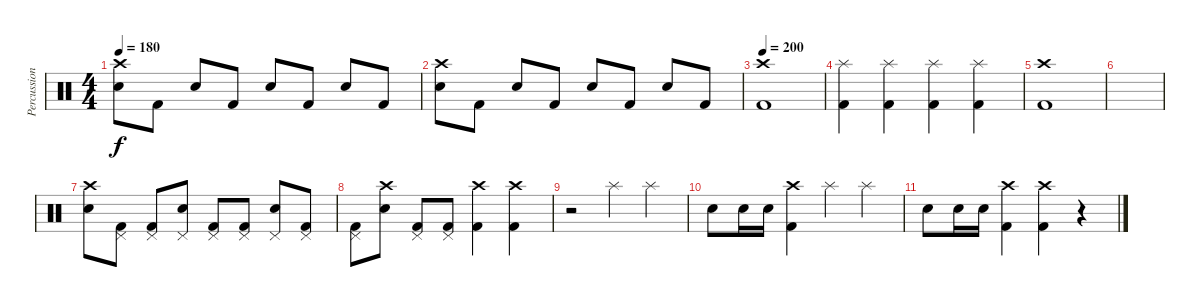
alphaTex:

\track ("Percussion" "Percussion") {instrument percussion}
\staff {score}
\articulation defaults
\ts (4 4)
\tempo 180
\clef neutral
\ks c
("Electric Snare (hit)" "Crash high (hit)").8{dy f} "Kick (hit) 2".8 "Electric Snare (hit)".8 "Kick (hit) 2".8 "Electric Snare (hit)".8 "Kick (hit) 2".8 "Electric Snare (hit)".8 "Kick (hit) 2".8 |
("Electric Snare (hit)" "Crash high (hit)").8 "Kick (hit) 2".8 "Electric Snare (hit)".8 "Kick (hit) 2".8 "Electric Snare (hit)".8 "Kick (hit) 2".8 "Electric Snare (hit)".8 "Kick (hit) 2".8 |
\tempo 200
("Kick (hit) 2" "Crash high (hit)").1 |
("Kick (hit) 2" "Splash (hit)").4 ("Kick (hit) 2" "Splash (hit)").4 ("Kick (hit) 2" "Splash (hit)").4 ("Kick (hit) 2" "Splash (hit)").4 |
("Kick (hit) 2" "Crash high (hit)").1 |
|
("Electric Snare (hit)" "Crash high (hit)").8 ("Kick (hit) 2" "Pedal Hi-Hat (hit)").8 ("Kick (hit) 2" "Pedal Hi-Hat (hit)").8 ("Electric Snare (hit)" "Pedal Hi-Hat (hit)").8 ("Kick (hit) 2" "Pedal Hi-Hat (hit)").8 ("Kick (hit) 2" "Pedal Hi-Hat (hit)").8 ("Electric Snare (hit)" "Pedal Hi-Hat (hit)").8 ("Kick (hit) 2" "Pedal Hi-Hat (hit)").8 |
("Kick (hit) 2" "Pedal Hi-Hat (hit)").8 ("Electric Snare (hit)" "Crash high (hit)").8 ("Kick (hit) 2" "Pedal Hi-Hat (hit)").8 ("Kick (hit) 2" "Pedal Hi-Hat (hit)").8 ("Kick (hit) 2" "Crash high (hit)").4 ("Kick (hit) 2" "Crash high (hit)").4 |
r.2 "Splash (hit)".4 "Splash (hit)".4 |
"Electric Snare (hit)".8 "Electric Snare (hit)".16 "Electric Snare (hit)".16 ("Kick (hit) 2" "Crash high (hit)").4 "Splash (hit)".4 "Splash (hit)".4 |
"Electric Snare (hit)".8 "Electric Snare (hit)".16 "Electric Snare (hit)".16 ("Kick (hit) 2" "Crash high (hit)").4 ("Kick (hit) 2" "Crash high (hit)").4 r.4
